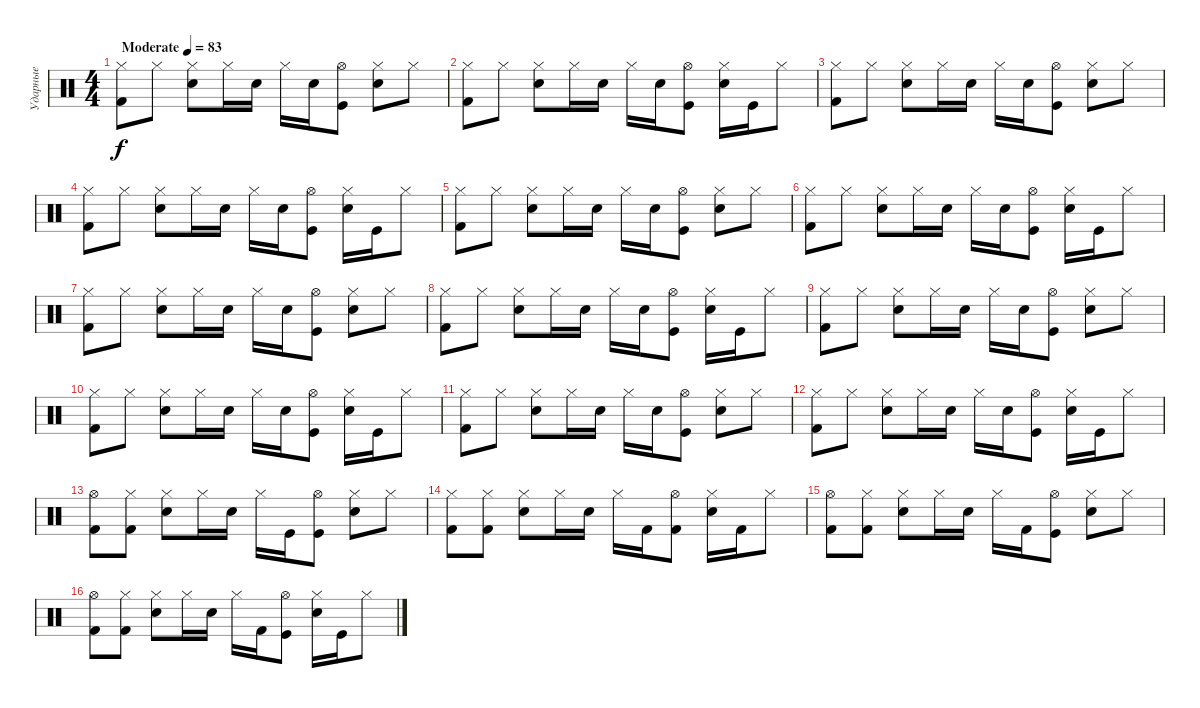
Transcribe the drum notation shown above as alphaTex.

\track ("Ударные" "Ударные") {instrument percussion}
\staff {score}
\articulation defaults
\ts (4 4)
\tempo (83 "Moderate")
\clef neutral
\ks c
("Hi-Hat (closed)" "Kick (hit) 2").8{dy f} "Hi-Hat (closed)".8 ("Hi-Hat (closed)" "Snare (hit) 2").8 "Hi-Hat (closed)".16 "Snare (hit) 2".16 "Hi-Hat (closed)".16 "Snare (hit) 2".16 ("Hi-Hat (open)" "Kick (hit)").8 ("Hi-Hat (closed)" "Snare (hit) 2").8 "Hi-Hat (closed)".8 |
("Hi-Hat (closed)" "Kick (hit) 2").8 "Hi-Hat (closed)".8 ("Hi-Hat (closed)" "Snare (hit) 2").8 "Hi-Hat (closed)".16 "Snare (hit) 2".16 "Hi-Hat (closed)".16 "Snare (hit) 2".16 ("Hi-Hat (open)" "Kick (hit)").8 ("Hi-Hat (closed)" "Snare (hit) 2").16 "Kick (hit)".16 "Hi-Hat (closed)".8 |
("Hi-Hat (closed)" "Kick (hit) 2").8 "Hi-Hat (closed)".8 ("Hi-Hat (closed)" "Snare (hit) 2").8 "Hi-Hat (closed)".16 "Snare (hit) 2".16 "Hi-Hat (closed)".16 "Snare (hit) 2".16 ("Hi-Hat (open)" "Kick (hit)").8 ("Hi-Hat (closed)" "Snare (hit) 2").8 "Hi-Hat (closed)".8 |
("Hi-Hat (closed)" "Kick (hit) 2").8 "Hi-Hat (closed)".8 ("Hi-Hat (closed)" "Snare (hit) 2").8 "Hi-Hat (closed)".16 "Snare (hit) 2".16 "Hi-Hat (closed)".16 "Snare (hit) 2".16 ("Hi-Hat (open)" "Kick (hit)").8 ("Hi-Hat (closed)" "Snare (hit) 2").16 "Kick (hit)".16 "Hi-Hat (closed)".8 |
("Hi-Hat (closed)" "Kick (hit) 2").8 "Hi-Hat (closed)".8 ("Hi-Hat (closed)" "Snare (hit) 2").8 "Hi-Hat (closed)".16 "Snare (hit) 2".16 "Hi-Hat (closed)".16 "Snare (hit) 2".16 ("Hi-Hat (open)" "Kick (hit)").8 ("Hi-Hat (closed)" "Snare (hit) 2").8 "Hi-Hat (closed)".8 |
("Hi-Hat (closed)" "Kick (hit) 2").8 "Hi-Hat (closed)".8 ("Hi-Hat (closed)" "Snare (hit) 2").8 "Hi-Hat (closed)".16 "Snare (hit) 2".16 "Hi-Hat (closed)".16 "Snare (hit) 2".16 ("Hi-Hat (open)" "Kick (hit)").8 ("Hi-Hat (closed)" "Snare (hit) 2").16 "Kick (hit)".16 "Hi-Hat (closed)".8 |
("Hi-Hat (closed)" "Kick (hit) 2").8 "Hi-Hat (closed)".8 ("Hi-Hat (closed)" "Snare (hit) 2").8 "Hi-Hat (closed)".16 "Snare (hit) 2".16 "Hi-Hat (closed)".16 "Snare (hit) 2".16 ("Hi-Hat (open)" "Kick (hit)").8 ("Hi-Hat (closed)" "Snare (hit) 2").8 "Hi-Hat (closed)".8 |
("Hi-Hat (closed)" "Kick (hit) 2").8 "Hi-Hat (closed)".8 ("Hi-Hat (closed)" "Snare (hit) 2").8 "Hi-Hat (closed)".16 "Snare (hit) 2".16 "Hi-Hat (closed)".16 "Snare (hit) 2".16 ("Hi-Hat (open)" "Kick (hit)").8 ("Hi-Hat (closed)" "Snare (hit) 2").16 "Kick (hit)".16 "Hi-Hat (closed)".8 |
("Hi-Hat (closed)" "Kick (hit) 2").8 "Hi-Hat (closed)".8 ("Hi-Hat (closed)" "Snare (hit) 2").8 "Hi-Hat (closed)".16 "Snare (hit) 2".16 "Hi-Hat (closed)".16 "Snare (hit) 2".16 ("Hi-Hat (open)" "Kick (hit)").8 ("Hi-Hat (closed)" "Snare (hit) 2").8 "Hi-Hat (closed)".8 |
("Hi-Hat (closed)" "Kick (hit) 2").8 "Hi-Hat (closed)".8 ("Hi-Hat (closed)" "Snare (hit) 2").8 "Hi-Hat (closed)".16 "Snare (hit) 2".16 "Hi-Hat (closed)".16 "Snare (hit) 2".16 ("Hi-Hat (open)" "Kick (hit)").8 ("Hi-Hat (closed)" "Snare (hit) 2").16 "Kick (hit)".16 "Hi-Hat (closed)".8 |
("Hi-Hat (closed)" "Kick (hit) 2").8 "Hi-Hat (closed)".8 ("Hi-Hat (closed)" "Snare (hit) 2").8 "Hi-Hat (closed)".16 "Snare (hit) 2".16 "Hi-Hat (closed)".16 "Snare (hit) 2".16 ("Hi-Hat (open)" "Kick (hit)").8 ("Hi-Hat (closed)" "Snare (hit) 2").8 "Hi-Hat (closed)".8 |
("Hi-Hat (closed)" "Kick (hit) 2").8 "Hi-Hat (closed)".8 ("Hi-Hat (closed)" "Snare (hit) 2").8 "Hi-Hat (closed)".16 "Snare (hit) 2".16 "Hi-Hat (closed)".16 "Snare (hit) 2".16 ("Hi-Hat (open)" "Kick (hit)").8 ("Hi-Hat (closed)" "Snare (hit) 2").16 "Kick (hit)".16 "Hi-Hat (closed)".8 |
("Hi-Hat (open)" "Kick (hit) 2").8 ("Hi-Hat (closed)" "Kick (hit) 2").8 ("Hi-Hat (closed)" "Snare (hit) 2").8 "Hi-Hat (closed)".16 "Snare (hit) 2".16 "Hi-Hat (closed)".16 "Kick (hit)".16 ("Hi-Hat (open)" "Kick (hit)").8 ("Hi-Hat (closed)" "Snare (hit) 2").8 "Hi-Hat (closed)".8 |
("Hi-Hat (closed)" "Kick (hit) 2").8 ("Hi-Hat (closed)" "Kick (hit) 2").8 ("Hi-Hat (closed)" "Snare (hit) 2").8 "Hi-Hat (closed)".16 "Snare (hit) 2".16 "Hi-Hat (closed)".16 "Kick (hit) 2".16 ("Hi-Hat (open)" "Kick (hit) 2").8 ("Hi-Hat (closed)" "Snare (hit) 2").16 "Kick (hit) 2".16 "Hi-Hat (closed)".8 |
("Hi-Hat (open)" "Kick (hit) 2").8 ("Hi-Hat (closed)" "Kick (hit) 2").8 ("Hi-Hat (closed)" "Snare (hit) 2").8 "Hi-Hat (closed)".16 "Snare (hit) 2".16 "Hi-Hat (closed)".16 "Kick (hit) 2".16 ("Hi-Hat (open)" "Kick (hit)").8 ("Hi-Hat (closed)" "Snare (hit) 2").8 "Hi-Hat (closed)".8 |
("Hi-Hat (open)" "Kick (hit) 2").8 ("Hi-Hat (closed)" "Kick (hit) 2").8 ("Hi-Hat (closed)" "Snare (hit) 2").8 "Hi-Hat (closed)".16 "Snare (hit) 2".16 "Hi-Hat (closed)".16 "Kick (hit) 2".16 ("Hi-Hat (open)" "Kick (hit)").8 ("Hi-Hat (closed)" "Snare (hit) 2").16 "Kick (hit)".16 "Hi-Hat (closed)".8
